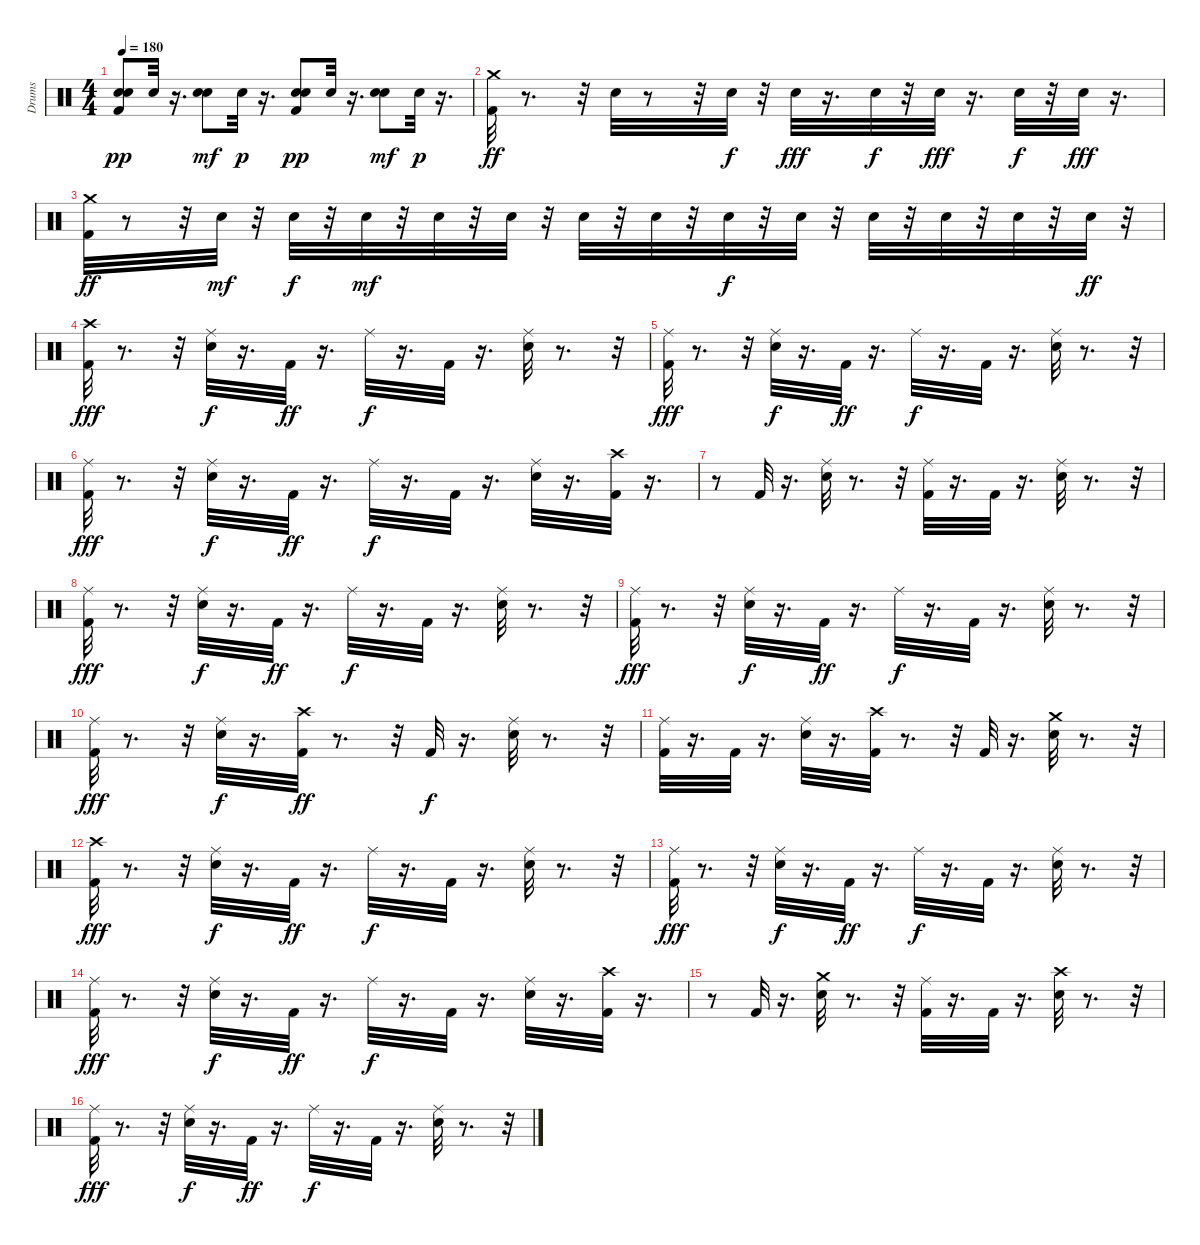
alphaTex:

\track ("Drums" "Drums") {instrument percussion}
\staff {score}
\articulation defaults
\ts (4 4)
\tempo 180
\clef neutral
\ks c
("Snare (hit) 2" "Snare (hit) 2" "Kick (hit) 2").8{dy pp} "Snare (hit) 2".32 r.16{d} ("Snare (hit) 2" "Snare (hit) 2").8{dy mf} "Snare (hit) 2".32{dy p} r.16{d} ("Snare (hit) 2" "Snare (hit) 2" "Kick (hit) 2").8{dy pp} "Snare (hit) 2".32 r.16{d} ("Snare (hit) 2" "Snare (hit) 2").8{dy mf} "Snare (hit) 2".32{dy p} r.16{d} |
("Crash medium (hit)" "Kick (hit) 2").32{dy ff} r.8{d} r.32 "Snare (hit) 2".32 r.8 r.32 "Snare (hit) 2".32{dy f} r.32 "Snare (hit) 2".32{dy fff} r.16{d} "Snare (hit) 2".32{dy f} r.32 "Snare (hit) 2".32{dy fff} r.16{d} "Snare (hit) 2".32{dy f} r.32 "Snare (hit) 2".32{dy fff} r.16{d} |
("Crash medium (hit)" "Kick (hit) 2").32{dy ff} r.8 r.32 "Snare (hit) 2".32{dy mf} r.32 "Snare (hit) 2".32{dy f} r.32 "Snare (hit) 2".32{dy mf} r.32 "Snare (hit) 2".32 r.32 "Snare (hit) 2".32 r.32 "Snare (hit) 2".32 r.32 "Snare (hit) 2".32 r.32 "Snare (hit) 2".32{dy f} r.32 "Snare (hit) 2".32 r.32 "Snare (hit) 2".32 r.32 "Snare (hit) 2".32 r.32 "Snare (hit) 2".32 r.32 "Snare (hit) 2".32{dy ff} r.32 |
("Kick (hit) 2" "Crash high (hit)").32{dy fff} r.8{d} r.32 ("Ride (middle)" "Snare (hit) 2").32{dy f} r.16{d} "Kick (hit) 2".32{dy ff} r.16{d} "Ride (middle)".32{dy f} r.16{d} "Kick (hit) 2".32 r.16{d} ("Ride (middle)" "Snare (hit) 2").32 r.8{d} r.32 |
("Ride (middle)" "Kick (hit) 2").32{dy fff} r.8{d} r.32 ("Ride (middle)" "Snare (hit) 2").32{dy f} r.16{d} "Kick (hit) 2".32{dy ff} r.16{d} "Ride (middle)".32{dy f} r.16{d} "Kick (hit) 2".32 r.16{d} ("Ride (middle)" "Snare (hit) 2").32 r.8{d} r.32 |
("Ride (middle)" "Kick (hit) 2").32{dy fff} r.8{d} r.32 ("Ride (middle)" "Snare (hit) 2").32{dy f} r.16{d} "Kick (hit) 2".32{dy ff} r.16{d} "Ride (middle)".32{dy f} r.16{d} "Kick (hit) 2".32 r.16{d} ("Ride (middle)" "Snare (hit) 2").32 r.16{d} ("Kick (hit) 2" "Crash high (hit)").32 r.16{d} |
r.8 "Kick (hit) 2".32 r.16{d} ("Ride (middle)" "Snare (hit) 2").32 r.8{d} r.32 ("Ride (middle)" "Kick (hit) 2").32 r.16{d} "Kick (hit) 2".32 r.16{d} ("Ride (middle)" "Snare (hit) 2").32 r.8{d} r.32 |
("Ride (middle)" "Kick (hit) 2").32{dy fff} r.8{d} r.32 ("Ride (middle)" "Snare (hit) 2").32{dy f} r.16{d} "Kick (hit) 2".32{dy ff} r.16{d} "Ride (middle)".32{dy f} r.16{d} "Kick (hit) 2".32 r.16{d} ("Ride (middle)" "Snare (hit) 2").32 r.8{d} r.32 |
("Ride (middle)" "Kick (hit) 2").32{dy fff} r.8{d} r.32 ("Ride (middle)" "Snare (hit) 2").32{dy f} r.16{d} "Kick (hit) 2".32{dy ff} r.16{d} "Ride (middle)".32{dy f} r.16{d} "Kick (hit) 2".32 r.16{d} ("Ride (middle)" "Snare (hit) 2").32 r.8{d} r.32 |
("Ride (middle)" "Kick (hit) 2").32{dy fff} r.8{d} r.32 ("Ride (middle)" "Snare (hit) 2").32{dy f} r.16{d} ("Crash high (hit)" "Kick (hit) 2").32{dy ff} r.8{d} r.32 "Kick (hit) 2".32{dy f} r.16{d} ("Ride (middle)" "Snare (hit) 2").32 r.8{d} r.32 |
("Ride (middle)" "Kick (hit) 2").32 r.16{d} "Kick (hit) 2".32 r.16{d} ("Ride (middle)" "Snare (hit) 2").32 r.16{d} ("Crash high (hit)" "Kick (hit) 2").32 r.8{d} r.32 "Kick (hit) 2".32 r.16{d} ("Crash medium (hit)" "Snare (hit) 2").32 r.8{d} r.32 |
("Kick (hit) 2" "Crash high (hit)").32{dy fff} r.8{d} r.32 ("Ride (middle)" "Snare (hit) 2").32{dy f} r.16{d} "Kick (hit) 2".32{dy ff} r.16{d} "Ride (middle)".32{dy f} r.16{d} "Kick (hit) 2".32 r.16{d} ("Ride (middle)" "Snare (hit) 2").32 r.8{d} r.32 |
("Ride (middle)" "Kick (hit) 2").32{dy fff} r.8{d} r.32 ("Ride (middle)" "Snare (hit) 2").32{dy f} r.16{d} "Kick (hit) 2".32{dy ff} r.16{d} "Ride (middle)".32{dy f} r.16{d} "Kick (hit) 2".32 r.16{d} ("Ride (middle)" "Snare (hit) 2").32 r.8{d} r.32 |
("Ride (middle)" "Kick (hit) 2").32{dy fff} r.8{d} r.32 ("Ride (middle)" "Snare (hit) 2").32{dy f} r.16{d} "Kick (hit) 2".32{dy ff} r.16{d} "Ride (middle)".32{dy f} r.16{d} "Kick (hit) 2".32 r.16{d} ("Ride (middle)" "Snare (hit) 2").32 r.16{d} ("Kick (hit) 2" "Crash high (hit)").32 r.16{d} |
r.8 "Kick (hit) 2".32 r.16{d} ("Crash medium (hit)" "Snare (hit) 2").32 r.8{d} r.32 ("Ride (middle)" "Kick (hit) 2").32 r.16{d} "Kick (hit) 2".32 r.16{d} ("Crash high (hit)" "Snare (hit) 2").32 r.8{d} r.32 |
("Ride (middle)" "Kick (hit) 2").32{dy fff} r.8{d} r.32 ("Ride (middle)" "Snare (hit) 2").32{dy f} r.16{d} "Kick (hit) 2".32{dy ff} r.16{d} "Ride (middle)".32{dy f} r.16{d} "Kick (hit) 2".32 r.16{d} ("Ride (middle)" "Snare (hit) 2").32 r.8{d} r.32
